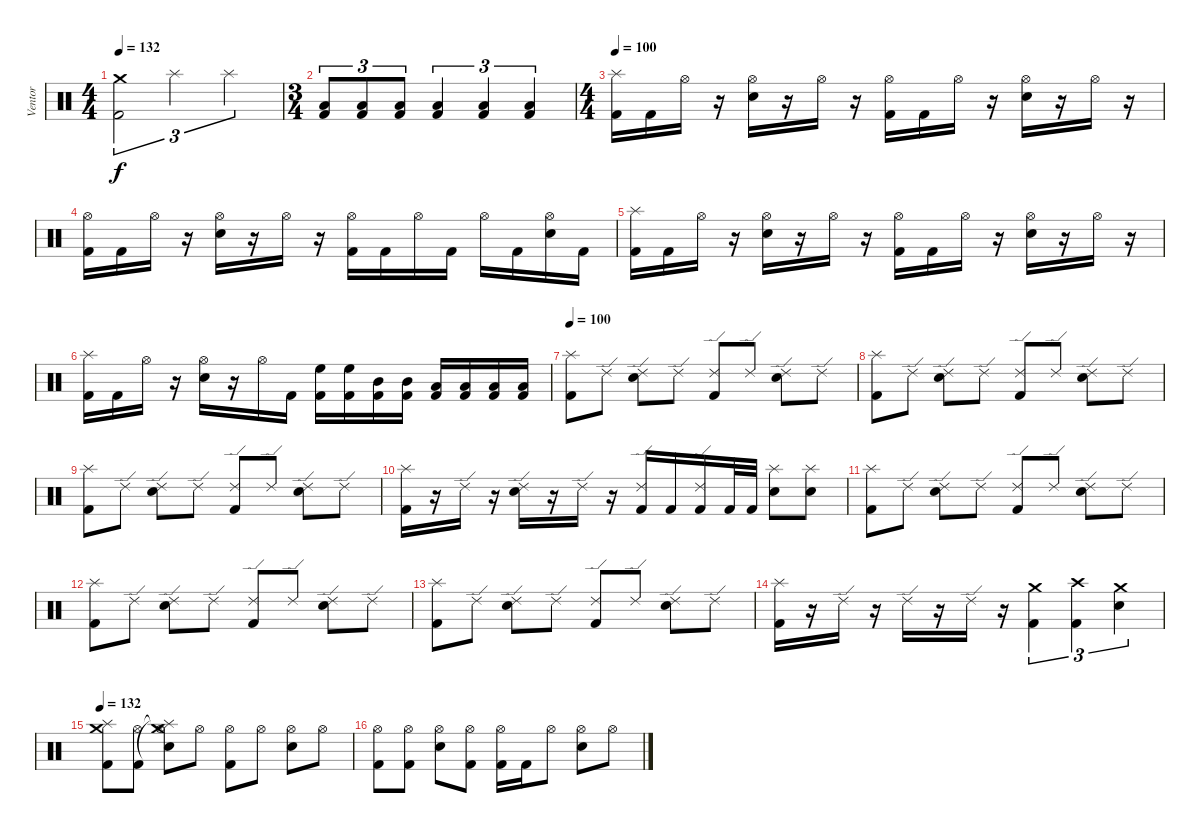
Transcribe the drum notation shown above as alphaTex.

\track ("Ventor" "Ventor") {instrument percussion}
\staff {score}
\articulation defaults
\ts (4 4)
\tempo 132
\clef neutral
\ks c
("Crash medium (hit)" "Kick (hit) 2").2{tu (3 2) dy f} "Splash (hit)".2{tu (3 2)} "Splash (hit)".2{tu (3 2)} |
\ts (3 4)
("Low Floor Tom (hit)" "Kick (hit) 2").8{tu (3 2)} ("Low Floor Tom (hit)" "Kick (hit) 2").8{tu (3 2)} ("Low Floor Tom (hit)" "Kick (hit) 2").8{tu (3 2)} ("Low Floor Tom (hit)" "Kick (hit) 2").4{tu (3 2)} ("Low Floor Tom (hit)" "Kick (hit) 2").4{tu (3 2)} ("Low Floor Tom (hit)" "Kick (hit) 2").4{tu (3 2)} |
\ts (4 4)
\tempo 100
("Splash (hit)" "Kick (hit) 2").16 "Kick (hit) 2".16 "Hi-Hat (open)".16 r.16 ("Hi-Hat (open)" "Snare (hit) 2").16 r.16 "Hi-Hat (open)".16 r.16 ("Hi-Hat (open)" "Kick (hit) 2").16 "Kick (hit) 2".16 "Hi-Hat (open)".16 r.16 ("Hi-Hat (open)" "Snare (hit) 2").16 r.16 "Hi-Hat (open)".16 r.16 |
("Hi-Hat (open)" "Kick (hit) 2").16 "Kick (hit) 2".16 "Hi-Hat (open)".16 r.16 ("Hi-Hat (open)" "Snare (hit) 2").16 r.16 "Hi-Hat (open)".16 r.16 ("Hi-Hat (open)" "Kick (hit) 2").16 "Kick (hit) 2".16 "Hi-Hat (open)".16 "Kick (hit) 2".16 "Hi-Hat (open)".16 "Kick (hit) 2".16 ("Hi-Hat (open)" "Snare (hit) 2").16 "Kick (hit) 2".16 |
("Splash (hit)" "Kick (hit) 2").16 "Kick (hit) 2".16 "Hi-Hat (open)".16 r.16 ("Hi-Hat (open)" "Snare (hit) 2").16 r.16 "Hi-Hat (open)".16 r.16 ("Hi-Hat (open)" "Kick (hit) 2").16 "Kick (hit) 2".16 "Hi-Hat (open)".16 r.16 ("Hi-Hat (open)" "Snare (hit) 2").16 r.16 "Hi-Hat (open)".16 r.16 |
("Splash (hit)" "Kick (hit) 2").16 "Kick (hit) 2".16 "Hi-Hat (open)".16 r.16 ("Hi-Hat (open)" "Snare (hit) 2").16 r.16 "Hi-Hat (open)".16 "Kick (hit) 2".16 ("High Floor Tom (hit)" "Kick (hit) 2").16 ("High Floor Tom (hit)" "Kick (hit) 2").16 ("Mid Tom (hit)" "Kick (hit) 2").16 ("Mid Tom (hit)" "Kick (hit) 2").16 ("Low Tom (hit)" "Kick (hit) 2").16 ("Low Tom (hit)" "Kick (hit) 2").16 ("Low Floor Tom (hit)" "Kick (hit) 2").16 ("Low Floor Tom (hit)" "Kick (hit) 2").16 |
\tempo 100
("Splash (hit)" "Kick (hit) 2").8 "Ride (edge) 2".8 ("Ride (edge) 2" "Snare (hit) 2").8 "Ride (edge) 2".8 ("Ride (edge) 2" "Kick (hit) 2").8 "Ride (edge) 2".8 ("Ride (edge) 2" "Snare (hit) 2").8 "Ride (edge) 2".8 |
("Splash (hit)" "Kick (hit) 2").8 "Ride (edge) 2".8 ("Ride (edge) 2" "Snare (hit) 2").8 "Ride (edge) 2".8 ("Ride (edge) 2" "Kick (hit) 2").8 "Ride (edge) 2".8 ("Ride (edge) 2" "Snare (hit) 2").8 "Ride (edge) 2".8 |
("Splash (hit)" "Kick (hit) 2").8 "Ride (edge) 2".8 ("Ride (edge) 2" "Snare (hit) 2").8 "Ride (edge) 2".8 ("Ride (edge) 2" "Kick (hit) 2").8 "Ride (edge) 2".8 ("Ride (edge) 2" "Snare (hit) 2").8 "Ride (edge) 2".8 |
("Splash (hit)" "Kick (hit) 2").16 r.16 "Ride (edge) 2".16 r.16 ("Ride (edge) 2" "Snare (hit) 2").16 r.16 "Ride (edge) 2".16 r.16 ("Ride (edge) 2" "Kick (hit) 2").16 "Kick (hit) 2".16 ("Ride (edge) 2" "Kick (hit) 2").16 "Kick (hit) 2".32 "Kick (hit) 2".32 ("Splash (hit)" "Snare (hit) 2").8 ("Splash (hit)" "Snare (hit) 2").8 |
("Splash (hit)" "Kick (hit) 2").8 "Ride (edge) 2".8 ("Ride (edge) 2" "Snare (hit) 2").8 "Ride (edge) 2".8 ("Ride (edge) 2" "Kick (hit) 2").8 "Ride (edge) 2".8 ("Ride (edge) 2" "Snare (hit) 2").8 "Ride (edge) 2".8 |
("Splash (hit)" "Kick (hit) 2").8 "Ride (edge) 2".8 ("Ride (edge) 2" "Snare (hit) 2").8 "Ride (edge) 2".8 ("Ride (edge) 2" "Kick (hit) 2").8 "Ride (edge) 2".8 ("Ride (edge) 2" "Snare (hit) 2").8 "Ride (edge) 2".8 |
("Splash (hit)" "Kick (hit) 2").8 "Ride (edge) 2".8 ("Ride (edge) 2" "Snare (hit) 2").8 "Ride (edge) 2".8 ("Ride (edge) 2" "Kick (hit) 2").8 "Ride (edge) 2".8 ("Ride (edge) 2" "Snare (hit) 2").8 "Ride (edge) 2".8 |
("Splash (hit)" "Kick (hit) 2").16 r.16 "Ride (edge) 2".16 r.16 "Ride (edge) 2".16 r.16 "Ride (edge) 2".16 r.16 ("Crash medium (hit)" "Kick (hit) 2").4{tu (3 2)} ("Crash high (hit)" "Kick (hit) 2").4{tu (3 2)} ("Crash medium (hit)" "Snare (hit) 2").4{tu (3 2)} |
\tempo 132
("Crash medium (hit)" "Splash (hit)" "Kick (hit) 2").8 ("Hi-Hat (open)" "Kick (hit) 2").8 ("Crash medium (hit)"{t} "Splash (hit)"{t} "Hi-Hat (open)" "Snare (hit) 2").8 "Hi-Hat (open)".8 ("Hi-Hat (open)" "Kick (hit) 2").8 "Hi-Hat (open)".8 ("Hi-Hat (open)" "Snare (hit) 2").8 "Hi-Hat (open)".8 |
("Hi-Hat (open)" "Kick (hit) 2").8 ("Hi-Hat (open)" "Kick (hit) 2").8 ("Hi-Hat (open)" "Snare (hit) 2").8 ("Hi-Hat (open)" "Kick (hit) 2").8 ("Hi-Hat (open)" "Kick (hit) 2").16 "Kick (hit) 2".16 "Hi-Hat (open)".8 ("Hi-Hat (open)" "Snare (hit) 2").8 "Hi-Hat (open)".8
